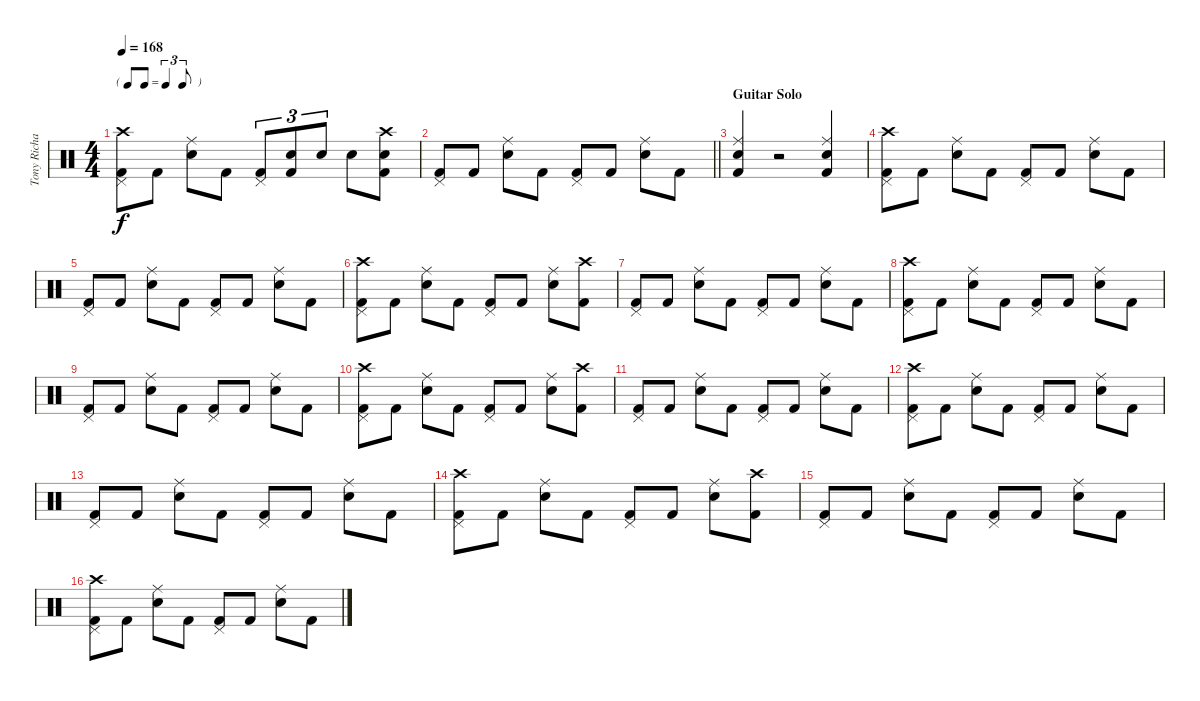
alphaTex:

\track ("Tony Richards (drums)" "Tony Richa") {instrument percussion}
\staff {score}
\articulation defaults
\ts (4 4)
\tf triplet8th
\tempo 168
\clef neutral
\ks c
("Crash high (hit)" "Pedal Hi-Hat (hit)" "Kick (hit) 2").8{dy f} "Kick (hit) 2".8 ("Ride (middle)" "Snare (hit) 2").8 "Kick (hit) 2".8 ("Pedal Hi-Hat (hit)" "Kick (hit) 2").8{tu (3 2)} ("Snare (hit) 2" "Kick (hit) 2").8{tu (3 2)} "Snare (hit) 2".8{tu (3 2)} "Snare (hit) 2".8 ("Crash high (hit)" "Snare (hit) 2" "Kick (hit) 2").8 |
\barLineRight lightlight
("Pedal Hi-Hat (hit)" "Kick (hit) 2").8 "Kick (hit) 2".8 ("Ride (middle)" "Snare (hit) 2").8 "Kick (hit) 2".8 ("Pedal Hi-Hat (hit)" "Kick (hit) 2").8 "Kick (hit) 2".8 ("Ride (middle)" "Snare (hit) 2").8 "Kick (hit) 2".8 |
\section ("" "Guitar Solo")
("Ride (middle)" "Snare (hit) 2" "Kick (hit) 2").4 r.2 ("Ride (middle)" "Snare (hit) 2" "Kick (hit) 2").4 |
("Crash high (hit)" "Pedal Hi-Hat (hit)" "Kick (hit) 2").8 "Kick (hit) 2".8 ("Ride (middle)" "Snare (hit) 2").8 "Kick (hit) 2".8 ("Pedal Hi-Hat (hit)" "Kick (hit) 2").8 "Kick (hit) 2".8 ("Ride (middle)" "Snare (hit) 2").8 "Kick (hit) 2".8 |
("Pedal Hi-Hat (hit)" "Kick (hit) 2").8 "Kick (hit) 2".8 ("Ride (middle)" "Snare (hit) 2").8 "Kick (hit) 2".8 ("Pedal Hi-Hat (hit)" "Kick (hit) 2").8 "Kick (hit) 2".8 ("Ride (middle)" "Snare (hit) 2").8 "Kick (hit) 2".8 |
("Crash high (hit)" "Pedal Hi-Hat (hit)" "Kick (hit) 2").8 "Kick (hit) 2".8 ("Ride (middle)" "Snare (hit) 2").8 "Kick (hit) 2".8 ("Pedal Hi-Hat (hit)" "Kick (hit) 2").8 "Kick (hit) 2".8 ("Ride (middle)" "Snare (hit) 2").8 ("Crash high (hit)" "Kick (hit) 2").8 |
("Pedal Hi-Hat (hit)" "Kick (hit) 2").8 "Kick (hit) 2".8 ("Ride (middle)" "Snare (hit) 2").8 "Kick (hit) 2".8 ("Pedal Hi-Hat (hit)" "Kick (hit) 2").8 "Kick (hit) 2".8 ("Ride (middle)" "Snare (hit) 2").8 "Kick (hit) 2".8 |
("Crash high (hit)" "Pedal Hi-Hat (hit)" "Kick (hit) 2").8 "Kick (hit) 2".8 ("Ride (middle)" "Snare (hit) 2").8 "Kick (hit) 2".8 ("Pedal Hi-Hat (hit)" "Kick (hit) 2").8 "Kick (hit) 2".8 ("Ride (middle)" "Snare (hit) 2").8 "Kick (hit) 2".8 |
("Pedal Hi-Hat (hit)" "Kick (hit) 2").8 "Kick (hit) 2".8 ("Ride (middle)" "Snare (hit) 2").8 "Kick (hit) 2".8 ("Pedal Hi-Hat (hit)" "Kick (hit) 2").8 "Kick (hit) 2".8 ("Ride (middle)" "Snare (hit) 2").8 "Kick (hit) 2".8 |
("Crash high (hit)" "Pedal Hi-Hat (hit)" "Kick (hit) 2").8 "Kick (hit) 2".8 ("Ride (middle)" "Snare (hit) 2").8 "Kick (hit) 2".8 ("Pedal Hi-Hat (hit)" "Kick (hit) 2").8 "Kick (hit) 2".8 ("Ride (middle)" "Snare (hit) 2").8 ("Crash high (hit)" "Kick (hit) 2").8 |
("Pedal Hi-Hat (hit)" "Kick (hit) 2").8 "Kick (hit) 2".8 ("Ride (middle)" "Snare (hit) 2").8 "Kick (hit) 2".8 ("Pedal Hi-Hat (hit)" "Kick (hit) 2").8 "Kick (hit) 2".8 ("Ride (middle)" "Snare (hit) 2").8 "Kick (hit) 2".8 |
("Crash high (hit)" "Pedal Hi-Hat (hit)" "Kick (hit) 2").8 "Kick (hit) 2".8 ("Ride (middle)" "Snare (hit) 2").8 "Kick (hit) 2".8 ("Pedal Hi-Hat (hit)" "Kick (hit) 2").8 "Kick (hit) 2".8 ("Ride (middle)" "Snare (hit) 2").8 "Kick (hit) 2".8 |
("Pedal Hi-Hat (hit)" "Kick (hit) 2").8 "Kick (hit) 2".8 ("Ride (middle)" "Snare (hit) 2").8 "Kick (hit) 2".8 ("Pedal Hi-Hat (hit)" "Kick (hit) 2").8 "Kick (hit) 2".8 ("Ride (middle)" "Snare (hit) 2").8 "Kick (hit) 2".8 |
("Crash high (hit)" "Pedal Hi-Hat (hit)" "Kick (hit) 2").8 "Kick (hit) 2".8 ("Ride (middle)" "Snare (hit) 2").8 "Kick (hit) 2".8 ("Pedal Hi-Hat (hit)" "Kick (hit) 2").8 "Kick (hit) 2".8 ("Ride (middle)" "Snare (hit) 2").8 ("Crash high (hit)" "Kick (hit) 2").8 |
("Pedal Hi-Hat (hit)" "Kick (hit) 2").8 "Kick (hit) 2".8 ("Ride (middle)" "Snare (hit) 2").8 "Kick (hit) 2".8 ("Pedal Hi-Hat (hit)" "Kick (hit) 2").8 "Kick (hit) 2".8 ("Ride (middle)" "Snare (hit) 2").8 "Kick (hit) 2".8 |
("Crash high (hit)" "Pedal Hi-Hat (hit)" "Kick (hit) 2").8 "Kick (hit) 2".8 ("Ride (middle)" "Snare (hit) 2").8 "Kick (hit) 2".8 ("Pedal Hi-Hat (hit)" "Kick (hit) 2").8 "Kick (hit) 2".8 ("Ride (middle)" "Snare (hit) 2").8 "Kick (hit) 2".8
